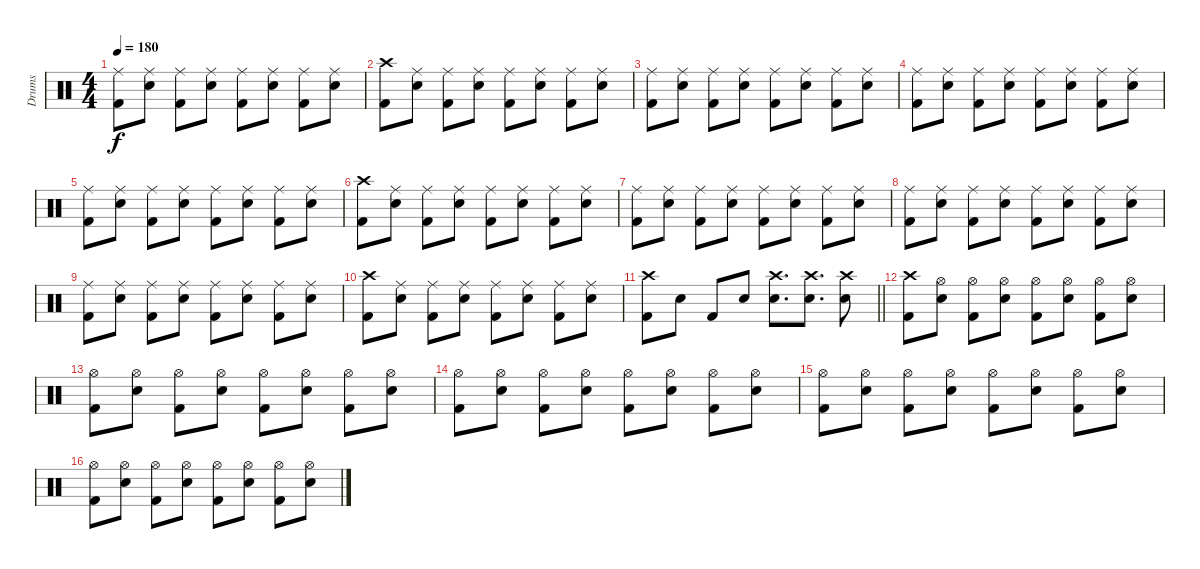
\track ("Drums" "Drums") {instrument percussion}
\staff {score}
\articulation defaults
\ts (4 4)
\tempo 180
\clef neutral
\ks c
("Ride (middle)" "Kick (hit) 2").8{dy f} ("Ride (middle)" "Snare (hit) 2").8 ("Ride (middle)" "Kick (hit) 2").8 ("Ride (middle)" "Snare (hit) 2").8 ("Ride (middle)" "Kick (hit) 2").8 ("Ride (middle)" "Snare (hit) 2").8 ("Ride (middle)" "Kick (hit) 2").8 ("Ride (middle)" "Snare (hit) 2").8 |
("Crash high (hit)" "Kick (hit) 2").8 ("Ride (middle)" "Snare (hit) 2").8 ("Ride (middle)" "Kick (hit) 2").8 ("Ride (middle)" "Snare (hit) 2").8 ("Ride (middle)" "Kick (hit) 2").8 ("Ride (middle)" "Snare (hit) 2").8 ("Ride (middle)" "Kick (hit) 2").8 ("Ride (middle)" "Snare (hit) 2").8 |
("Ride (middle)" "Kick (hit) 2").8 ("Ride (middle)" "Snare (hit) 2").8 ("Ride (middle)" "Kick (hit) 2").8 ("Ride (middle)" "Snare (hit) 2").8 ("Ride (middle)" "Kick (hit) 2").8 ("Ride (middle)" "Snare (hit) 2").8 ("Ride (middle)" "Kick (hit) 2").8 ("Ride (middle)" "Snare (hit) 2").8 |
("Ride (middle)" "Kick (hit) 2").8 ("Ride (middle)" "Snare (hit) 2").8 ("Ride (middle)" "Kick (hit) 2").8 ("Ride (middle)" "Snare (hit) 2").8 ("Ride (middle)" "Kick (hit) 2").8 ("Ride (middle)" "Snare (hit) 2").8 ("Ride (middle)" "Kick (hit) 2").8 ("Ride (middle)" "Snare (hit) 2").8 |
("Ride (middle)" "Kick (hit) 2").8 ("Ride (middle)" "Snare (hit) 2").8 ("Ride (middle)" "Kick (hit) 2").8 ("Ride (middle)" "Snare (hit) 2").8 ("Ride (middle)" "Kick (hit) 2").8 ("Ride (middle)" "Snare (hit) 2").8 ("Ride (middle)" "Kick (hit) 2").8 ("Ride (middle)" "Snare (hit) 2").8 |
("Crash high (hit)" "Kick (hit) 2").8 ("Ride (middle)" "Snare (hit) 2").8 ("Ride (middle)" "Kick (hit) 2").8 ("Ride (middle)" "Snare (hit) 2").8 ("Ride (middle)" "Kick (hit) 2").8 ("Ride (middle)" "Snare (hit) 2").8 ("Ride (middle)" "Kick (hit) 2").8 ("Ride (middle)" "Snare (hit) 2").8 |
("Ride (middle)" "Kick (hit) 2").8 ("Ride (middle)" "Snare (hit) 2").8 ("Ride (middle)" "Kick (hit) 2").8 ("Ride (middle)" "Snare (hit) 2").8 ("Ride (middle)" "Kick (hit) 2").8 ("Ride (middle)" "Snare (hit) 2").8 ("Ride (middle)" "Kick (hit) 2").8 ("Ride (middle)" "Snare (hit) 2").8 |
("Ride (middle)" "Kick (hit) 2").8 ("Ride (middle)" "Snare (hit) 2").8 ("Ride (middle)" "Kick (hit) 2").8 ("Ride (middle)" "Snare (hit) 2").8 ("Ride (middle)" "Kick (hit) 2").8 ("Ride (middle)" "Snare (hit) 2").8 ("Ride (middle)" "Kick (hit) 2").8 ("Ride (middle)" "Snare (hit) 2").8 |
("Ride (middle)" "Kick (hit) 2").8 ("Ride (middle)" "Snare (hit) 2").8 ("Ride (middle)" "Kick (hit) 2").8 ("Ride (middle)" "Snare (hit) 2").8 ("Ride (middle)" "Kick (hit) 2").8 ("Ride (middle)" "Snare (hit) 2").8 ("Ride (middle)" "Kick (hit) 2").8 ("Ride (middle)" "Snare (hit) 2").8 |
("Crash high (hit)" "Kick (hit) 2").8 ("Ride (middle)" "Snare (hit) 2").8 ("Ride (middle)" "Kick (hit) 2").8 ("Ride (middle)" "Snare (hit) 2").8 ("Ride (middle)" "Kick (hit) 2").8 ("Ride (middle)" "Snare (hit) 2").8 ("Ride (middle)" "Kick (hit) 2").8 ("Ride (middle)" "Snare (hit) 2").8 |
\barLineRight lightlight
("Crash high (hit)" "Kick (hit) 2").8 "Snare (hit) 2".8 "Kick (hit) 2".8 "Snare (hit) 2".8 ("Crash high (hit)" "Snare (hit) 2").8{d} ("Crash high (hit)" "Snare (hit) 2").8{d} ("Crash high (hit)" "Snare (hit) 2").8 |
("Crash high (hit)" "Kick (hit) 2").8 ("Hi-Hat (open)" "Snare (hit) 2").8 ("Hi-Hat (open)" "Kick (hit) 2").8 ("Hi-Hat (open)" "Snare (hit) 2").8 ("Hi-Hat (open)" "Kick (hit) 2").8 ("Hi-Hat (open)" "Snare (hit) 2").8 ("Hi-Hat (open)" "Kick (hit) 2").8 ("Hi-Hat (open)" "Snare (hit) 2").8 |
("Hi-Hat (open)" "Kick (hit) 2").8 ("Hi-Hat (open)" "Snare (hit) 2").8 ("Hi-Hat (open)" "Kick (hit) 2").8 ("Hi-Hat (open)" "Snare (hit) 2").8 ("Hi-Hat (open)" "Kick (hit) 2").8 ("Hi-Hat (open)" "Snare (hit) 2").8 ("Hi-Hat (open)" "Kick (hit) 2").8 ("Hi-Hat (open)" "Snare (hit) 2").8 |
("Hi-Hat (open)" "Kick (hit) 2").8 ("Hi-Hat (open)" "Snare (hit) 2").8 ("Hi-Hat (open)" "Kick (hit) 2").8 ("Hi-Hat (open)" "Snare (hit) 2").8 ("Hi-Hat (open)" "Kick (hit) 2").8 ("Hi-Hat (open)" "Snare (hit) 2").8 ("Hi-Hat (open)" "Kick (hit) 2").8 ("Hi-Hat (open)" "Snare (hit) 2").8 |
("Hi-Hat (open)" "Kick (hit) 2").8 ("Hi-Hat (open)" "Snare (hit) 2").8 ("Hi-Hat (open)" "Kick (hit) 2").8 ("Hi-Hat (open)" "Snare (hit) 2").8 ("Hi-Hat (open)" "Kick (hit) 2").8 ("Hi-Hat (open)" "Snare (hit) 2").8 ("Hi-Hat (open)" "Kick (hit) 2").8 ("Hi-Hat (open)" "Snare (hit) 2").8 |
("Hi-Hat (open)" "Kick (hit) 2").8 ("Hi-Hat (open)" "Snare (hit) 2").8 ("Hi-Hat (open)" "Kick (hit) 2").8 ("Hi-Hat (open)" "Snare (hit) 2").8 ("Hi-Hat (open)" "Kick (hit) 2").8 ("Hi-Hat (open)" "Snare (hit) 2").8 ("Hi-Hat (open)" "Kick (hit) 2").8 ("Hi-Hat (open)" "Snare (hit) 2").8
